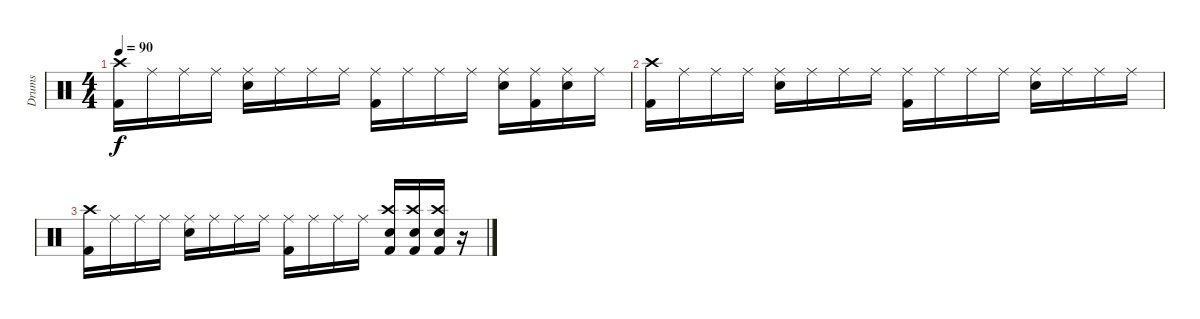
\track ("Drums" "Drums") {instrument percussion}
\staff {score}
\articulation defaults
\ts (4 4)
\tempo 90
\clef neutral
\ks c
("Kick (hit) 2" "Crash high (hit)").16{dy f} "Ride (middle)".16 "Ride (middle)".16 "Ride (middle)".16 ("Snare (hit) 2" "Ride (middle)").16 "Ride (middle)".16 "Ride (middle)".16 "Ride (middle)".16 ("Kick (hit) 2" "Ride (middle)").16 "Ride (middle)".16 "Ride (middle)".16 "Ride (middle)".16 ("Snare (hit) 2" "Ride (middle)").16 ("Kick (hit) 2" "Ride (middle)").16 ("Snare (hit) 2" "Ride (middle)").16 "Ride (middle)".16 |
("Kick (hit) 2" "Crash high (hit)").16 "Ride (middle)".16 "Ride (middle)".16 "Ride (middle)".16 ("Snare (hit) 2" "Ride (middle)").16 "Ride (middle)".16 "Ride (middle)".16 "Ride (middle)".16 ("Kick (hit) 2" "Ride (middle)").16 "Ride (middle)".16 "Ride (middle)".16 "Ride (middle)".16 ("Snare (hit) 2" "Ride (middle)").16 "Ride (middle)".16 "Ride (middle)".16 "Ride (middle)".16 |
("Kick (hit) 2" "Crash high (hit)").16 "Ride (middle)".16 "Ride (middle)".16 "Ride (middle)".16 ("Snare (hit) 2" "Ride (middle)").16 "Ride (middle)".16 "Ride (middle)".16 "Ride (middle)".16 ("Kick (hit) 2" "Ride (middle)").16 "Ride (middle)".16 "Ride (middle)".16 "Ride (middle)".16 ("Kick (hit) 2" "Snare (hit) 2" "Crash high (hit)").16 ("Kick (hit) 2" "Snare (hit) 2" "Crash high (hit)").16 ("Kick (hit) 2" "Snare (hit) 2" "Crash high (hit)").16 r.16
